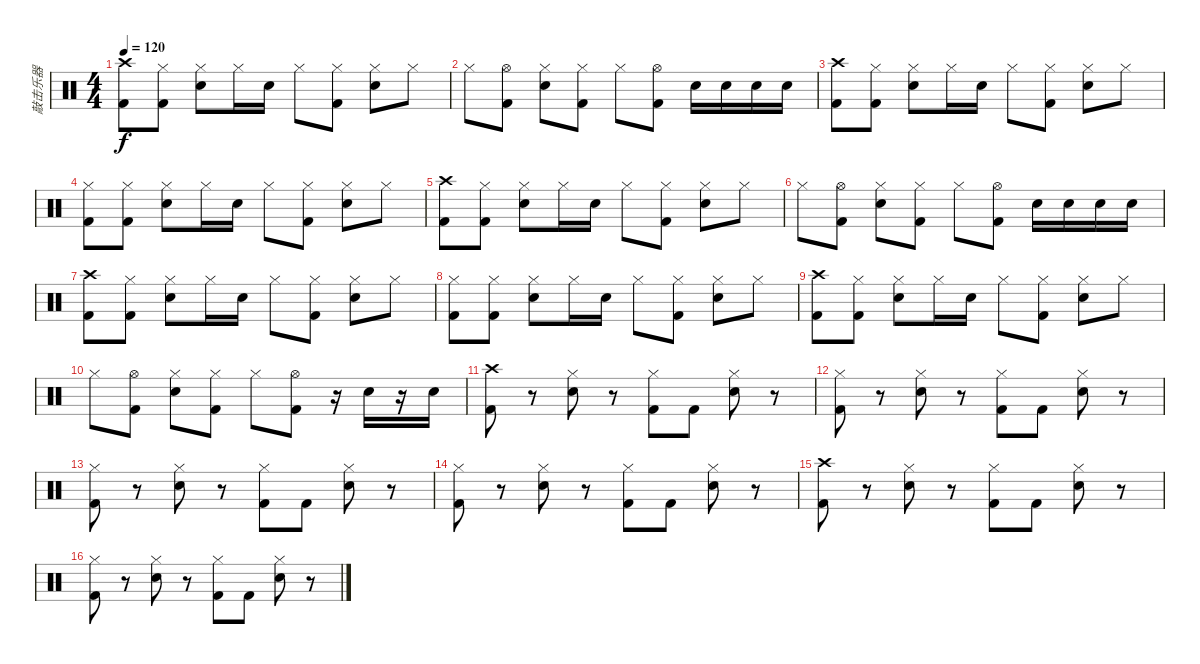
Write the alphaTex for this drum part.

\track ("敲击乐器" "敲击乐器") {instrument percussion}
\staff {score}
\articulation defaults
\ts (4 4)
\tempo 120
\clef neutral
\ks c
("Crash high (hit)" "Kick (hit) 2").8{dy f} ("Hi-Hat (closed)" "Kick (hit) 2").8 ("Hi-Hat (closed)" "Snare (hit) 2").8 "Hi-Hat (closed)".16 "Snare (hit) 2".16 "Hi-Hat (closed)".8 ("Hi-Hat (closed)" "Kick (hit) 2").8 ("Hi-Hat (closed)" "Snare (hit) 2").8 "Hi-Hat (closed)".8 |
"Hi-Hat (closed)".8 ("Hi-Hat (open)" "Kick (hit) 2").8 ("Hi-Hat (closed)" "Snare (hit) 2").8 ("Hi-Hat (closed)" "Kick (hit) 2").8 "Hi-Hat (closed)".8 ("Hi-Hat (open)" "Kick (hit) 2").8 "Snare (hit) 2".16 "Snare (hit) 2".16 "Snare (hit) 2".16 "Snare (hit) 2".16 |
("Crash high (hit)" "Kick (hit) 2").8 ("Hi-Hat (closed)" "Kick (hit) 2").8 ("Hi-Hat (closed)" "Snare (hit) 2").8 "Hi-Hat (closed)".16 "Snare (hit) 2".16 "Hi-Hat (closed)".8 ("Hi-Hat (closed)" "Kick (hit) 2").8 ("Hi-Hat (closed)" "Snare (hit) 2").8 "Hi-Hat (closed)".8 |
("Hi-Hat (closed)" "Kick (hit) 2").8 ("Hi-Hat (closed)" "Kick (hit) 2").8 ("Hi-Hat (closed)" "Snare (hit) 2").8 "Hi-Hat (closed)".16 "Snare (hit) 2".16 "Hi-Hat (closed)".8 ("Hi-Hat (closed)" "Kick (hit) 2").8 ("Hi-Hat (closed)" "Snare (hit) 2").8 "Hi-Hat (closed)".8 |
("Crash high (hit)" "Kick (hit) 2").8 ("Hi-Hat (closed)" "Kick (hit) 2").8 ("Hi-Hat (closed)" "Snare (hit) 2").8 "Hi-Hat (closed)".16 "Snare (hit) 2".16 "Hi-Hat (closed)".8 ("Hi-Hat (closed)" "Kick (hit) 2").8 ("Hi-Hat (closed)" "Snare (hit) 2").8 "Hi-Hat (closed)".8 |
"Hi-Hat (closed)".8 ("Hi-Hat (open)" "Kick (hit) 2").8 ("Hi-Hat (closed)" "Snare (hit) 2").8 ("Hi-Hat (closed)" "Kick (hit) 2").8 "Hi-Hat (closed)".8 ("Hi-Hat (open)" "Kick (hit) 2").8 "Snare (hit) 2".16 "Snare (hit) 2".16 "Snare (hit) 2".16 "Snare (hit) 2".16 |
("Crash high (hit)" "Kick (hit) 2").8 ("Hi-Hat (closed)" "Kick (hit) 2").8 ("Hi-Hat (closed)" "Snare (hit) 2").8 "Hi-Hat (closed)".16 "Snare (hit) 2".16 "Hi-Hat (closed)".8 ("Hi-Hat (closed)" "Kick (hit) 2").8 ("Hi-Hat (closed)" "Snare (hit) 2").8 "Hi-Hat (closed)".8 |
("Hi-Hat (closed)" "Kick (hit) 2").8 ("Hi-Hat (closed)" "Kick (hit) 2").8 ("Hi-Hat (closed)" "Snare (hit) 2").8 "Hi-Hat (closed)".16 "Snare (hit) 2".16 "Hi-Hat (closed)".8 ("Hi-Hat (closed)" "Kick (hit) 2").8 ("Hi-Hat (closed)" "Snare (hit) 2").8 "Hi-Hat (closed)".8 |
("Crash high (hit)" "Kick (hit) 2").8 ("Hi-Hat (closed)" "Kick (hit) 2").8 ("Hi-Hat (closed)" "Snare (hit) 2").8 "Hi-Hat (closed)".16 "Snare (hit) 2".16 "Hi-Hat (closed)".8 ("Hi-Hat (closed)" "Kick (hit) 2").8 ("Hi-Hat (closed)" "Snare (hit) 2").8 "Hi-Hat (closed)".8 |
"Hi-Hat (closed)".8 ("Hi-Hat (open)" "Kick (hit) 2").8 ("Hi-Hat (closed)" "Snare (hit) 2").8 ("Hi-Hat (closed)" "Kick (hit) 2").8 "Hi-Hat (closed)".8 ("Hi-Hat (open)" "Kick (hit) 2").8 r.16 "Snare (hit) 2".16 r.16 "Snare (hit) 2".16 |
("Crash high (hit)" "Kick (hit) 2").8 r.8 ("Hi-Hat (closed)" "Snare (hit) 2").8 r.8 ("Hi-Hat (closed)" "Kick (hit) 2").8 "Kick (hit) 2".8 ("Hi-Hat (closed)" "Snare (hit) 2").8 r.8 |
("Hi-Hat (closed)" "Kick (hit) 2").8 r.8 ("Hi-Hat (closed)" "Snare (hit) 2").8 r.8 ("Hi-Hat (closed)" "Kick (hit) 2").8 "Kick (hit) 2".8 ("Hi-Hat (closed)" "Snare (hit) 2").8 r.8 |
("Hi-Hat (closed)" "Kick (hit) 2").8 r.8 ("Hi-Hat (closed)" "Snare (hit) 2").8 r.8 ("Hi-Hat (closed)" "Kick (hit) 2").8 "Kick (hit) 2".8 ("Hi-Hat (closed)" "Snare (hit) 2").8 r.8 |
("Hi-Hat (closed)" "Kick (hit) 2").8 r.8 ("Hi-Hat (closed)" "Snare (hit) 2").8 r.8 ("Hi-Hat (closed)" "Kick (hit) 2").8 "Kick (hit) 2".8 ("Hi-Hat (closed)" "Snare (hit) 2").8 r.8 |
("Crash high (hit)" "Kick (hit) 2").8 r.8 ("Hi-Hat (closed)" "Snare (hit) 2").8 r.8 ("Hi-Hat (closed)" "Kick (hit) 2").8 "Kick (hit) 2".8 ("Hi-Hat (closed)" "Snare (hit) 2").8 r.8 |
("Hi-Hat (closed)" "Kick (hit) 2").8 r.8 ("Hi-Hat (closed)" "Snare (hit) 2").8 r.8 ("Hi-Hat (closed)" "Kick (hit) 2").8 "Kick (hit) 2".8 ("Hi-Hat (closed)" "Snare (hit) 2").8 r.8
